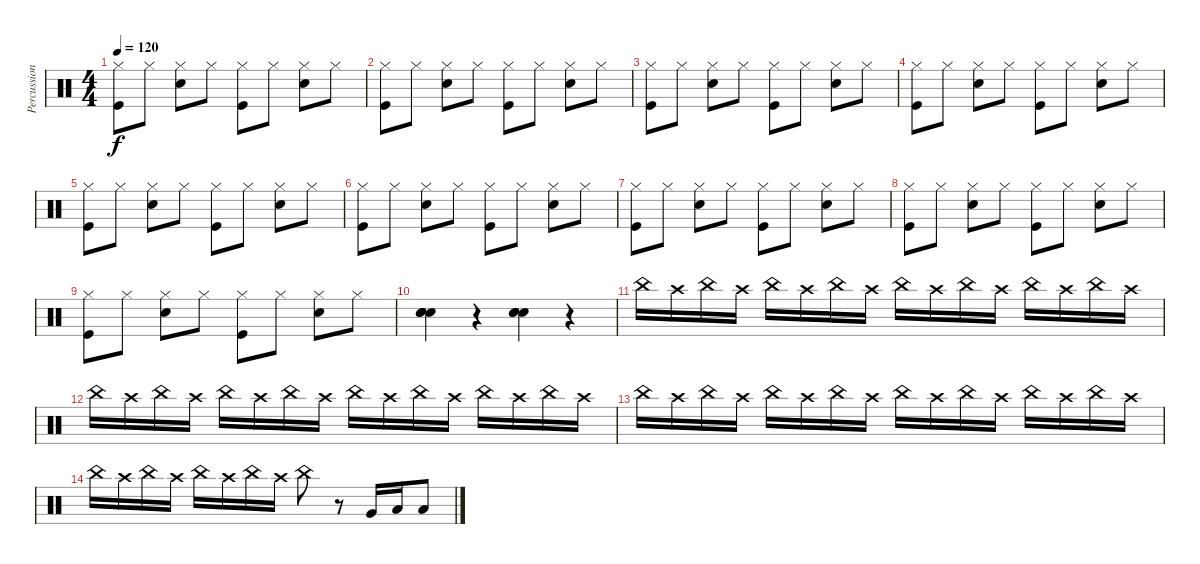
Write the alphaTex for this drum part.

\track ("Percussions" "Percussion") {instrument percussion}
\staff {score}
\articulation defaults
\ts (4 4)
\tempo 120
\clef neutral
\ks c
("Hi-Hat (closed)" "Kick (hit)").8{dy f} "Hi-Hat (closed)".8 ("Hi-Hat (closed)" "Electric Snare (hit)").8 "Hi-Hat (closed)".8 ("Hi-Hat (closed)" "Kick (hit)").8 "Hi-Hat (closed)".8 ("Hi-Hat (closed)" "Electric Snare (hit)").8 "Hi-Hat (closed)".8 |
("Hi-Hat (closed)" "Kick (hit)").8 "Hi-Hat (closed)".8 ("Hi-Hat (closed)" "Electric Snare (hit)").8 "Hi-Hat (closed)".8 ("Hi-Hat (closed)" "Kick (hit)").8 "Hi-Hat (closed)".8 ("Hi-Hat (closed)" "Electric Snare (hit)").8 "Hi-Hat (closed)".8 |
("Hi-Hat (closed)" "Kick (hit)").8 "Hi-Hat (closed)".8 ("Hi-Hat (closed)" "Electric Snare (hit)").8 "Hi-Hat (closed)".8 ("Hi-Hat (closed)" "Kick (hit)").8 "Hi-Hat (closed)".8 ("Hi-Hat (closed)" "Electric Snare (hit)").8 "Hi-Hat (closed)".8 |
("Hi-Hat (closed)" "Kick (hit)").8 "Hi-Hat (closed)".8 ("Hi-Hat (closed)" "Electric Snare (hit)").8 "Hi-Hat (closed)".8 ("Hi-Hat (closed)" "Kick (hit)").8 "Hi-Hat (closed)".8 ("Hi-Hat (closed)" "Electric Snare (hit)").8 "Hi-Hat (closed)".8 |
("Hi-Hat (closed)" "Kick (hit)").8 "Hi-Hat (closed)".8 ("Hi-Hat (closed)" "Electric Snare (hit)").8 "Hi-Hat (closed)".8 ("Hi-Hat (closed)" "Kick (hit)").8 "Hi-Hat (closed)".8 ("Hi-Hat (closed)" "Electric Snare (hit)").8 "Hi-Hat (closed)".8 |
("Hi-Hat (closed)" "Kick (hit)").8 "Hi-Hat (closed)".8 ("Hi-Hat (closed)" "Electric Snare (hit)").8 "Hi-Hat (closed)".8 ("Hi-Hat (closed)" "Kick (hit)").8 "Hi-Hat (closed)".8 ("Hi-Hat (closed)" "Electric Snare (hit)").8 "Hi-Hat (closed)".8 |
("Hi-Hat (closed)" "Kick (hit)").8 "Hi-Hat (closed)".8 ("Hi-Hat (closed)" "Electric Snare (hit)").8 "Hi-Hat (closed)".8 ("Hi-Hat (closed)" "Kick (hit)").8 "Hi-Hat (closed)".8 ("Hi-Hat (closed)" "Electric Snare (hit)").8 "Hi-Hat (closed)".8 |
("Hi-Hat (closed)" "Kick (hit)").8 "Hi-Hat (closed)".8 ("Hi-Hat (closed)" "Electric Snare (hit)").8 "Hi-Hat (closed)".8 ("Hi-Hat (closed)" "Kick (hit)").8 "Hi-Hat (closed)".8 ("Hi-Hat (closed)" "Electric Snare (hit)").8 "Hi-Hat (closed)".8 |
("Hi-Hat (closed)" "Kick (hit)").8 "Hi-Hat (closed)".8 ("Hi-Hat (closed)" "Electric Snare (hit)").8 "Hi-Hat (closed)".8 ("Hi-Hat (closed)" "Kick (hit)").8 "Hi-Hat (closed)".8 ("Hi-Hat (closed)" "Electric Snare (hit)").8 "Hi-Hat (closed)".8 |
("Electric Snare (hit)" "Electric Snare (hit)" "Electric Snare (hit)").4 r.4 ("Electric Snare (hit)" "Electric Snare (hit)" "Electric Snare (hit)").4 r.4 |
"China (hit)".16 "Crash high (hit)".16 "China (hit)".16 "Crash high (hit)".16 "China (hit)".16 "Crash high (hit)".16 "China (hit)".16 "Crash high (hit)".16 "China (hit)".16 "Crash high (hit)".16 "China (hit)".16 "Crash high (hit)".16 "China (hit)".16 "Crash high (hit)".16 "China (hit)".16 "Crash high (hit)".16 |
"China (hit)".16 "Crash high (hit)".16 "China (hit)".16 "Crash high (hit)".16 "China (hit)".16 "Crash high (hit)".16 "China (hit)".16 "Crash high (hit)".16 "China (hit)".16 "Crash high (hit)".16 "China (hit)".16 "Crash high (hit)".16 "China (hit)".16 "Crash high (hit)".16 "China (hit)".16 "Crash high (hit)".16 |
"China (hit)".16 "Crash high (hit)".16 "China (hit)".16 "Crash high (hit)".16 "China (hit)".16 "Crash high (hit)".16 "China (hit)".16 "Crash high (hit)".16 "China (hit)".16 "Crash high (hit)".16 "China (hit)".16 "Crash high (hit)".16 "China (hit)".16 "Crash high (hit)".16 "China (hit)".16 "Crash high (hit)".16 |
"China (hit)".16 "Crash high (hit)".16 "China (hit)".16 "Crash high (hit)".16 "China (hit)".16 "Crash high (hit)".16 "China (hit)".16 "Crash high (hit)".16 "China (hit)".8 r.8 "Very Low Tom (hit)".16 "Low Floor Tom (hit)".16 "Low Tom (hit)".8
